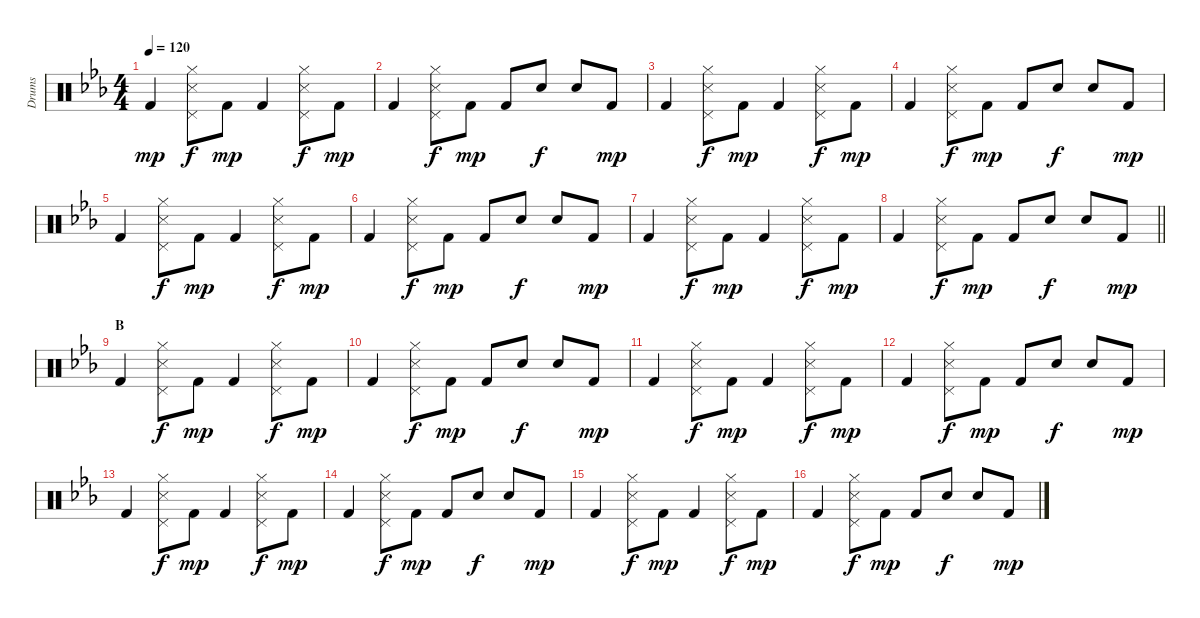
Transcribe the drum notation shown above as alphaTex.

\track ("Drums" "Drums") {instrument percussion}
\staff {score}
\articulation defaults
\ts (4 4)
\tempo 120
\clef neutral
\ks eb "Kick (hit) 2".4{dy mp}
("Hi-Hat (closed)" "Metronome (hit)" "Pedal Hi-Hat (hit)").8{dy f} "Kick (hit) 2".8{dy mp} "Kick (hit) 2".4 ("Hi-Hat (closed)" "Metronome (hit)" "Pedal Hi-Hat (hit)").8{dy f} "Kick (hit) 2".8{dy mp} |
"Kick (hit) 2".4 ("Hi-Hat (closed)" "Metronome (hit)" "Pedal Hi-Hat (hit)").8{dy f} "Kick (hit) 2".8{dy mp} "Kick (hit) 2".8 "Electric Snare (hit)".8{dy f} "Electric Snare (hit)".8 "Kick (hit) 2".8{dy mp} |
"Kick (hit) 2".4 ("Hi-Hat (closed)" "Metronome (hit)" "Pedal Hi-Hat (hit)").8{dy f} "Kick (hit) 2".8{dy mp} "Kick (hit) 2".4 ("Hi-Hat (closed)" "Metronome (hit)" "Pedal Hi-Hat (hit)").8{dy f} "Kick (hit) 2".8{dy mp} |
"Kick (hit) 2".4 ("Hi-Hat (closed)" "Metronome (hit)" "Pedal Hi-Hat (hit)").8{dy f} "Kick (hit) 2".8{dy mp} "Kick (hit) 2".8 "Electric Snare (hit)".8{dy f} "Electric Snare (hit)".8 "Kick (hit) 2".8{dy mp} |
"Kick (hit) 2".4 ("Hi-Hat (closed)" "Metronome (hit)" "Pedal Hi-Hat (hit)").8{dy f} "Kick (hit) 2".8{dy mp} "Kick (hit) 2".4 ("Hi-Hat (closed)" "Metronome (hit)" "Pedal Hi-Hat (hit)").8{dy f} "Kick (hit) 2".8{dy mp} |
"Kick (hit) 2".4 ("Hi-Hat (closed)" "Metronome (hit)" "Pedal Hi-Hat (hit)").8{dy f} "Kick (hit) 2".8{dy mp} "Kick (hit) 2".8 "Electric Snare (hit)".8{dy f} "Electric Snare (hit)".8 "Kick (hit) 2".8{dy mp} |
"Kick (hit) 2".4 ("Hi-Hat (closed)" "Metronome (hit)" "Pedal Hi-Hat (hit)").8{dy f} "Kick (hit) 2".8{dy mp} "Kick (hit) 2".4 ("Hi-Hat (closed)" "Metronome (hit)" "Pedal Hi-Hat (hit)").8{dy f} "Kick (hit) 2".8{dy mp} |
\barLineRight lightlight "Kick (hit) 2".4
("Hi-Hat (closed)" "Metronome (hit)" "Pedal Hi-Hat (hit)").8{dy f} "Kick (hit) 2".8{dy mp} "Kick (hit) 2".8 "Electric Snare (hit)".8{dy f} "Electric Snare (hit)".8 "Kick (hit) 2".8{dy mp} |
\section ("" "B")
"Kick (hit) 2".4 ("Hi-Hat (closed)" "Metronome (hit)" "Pedal Hi-Hat (hit)").8{dy f} "Kick (hit) 2".8{dy mp} "Kick (hit) 2".4 ("Hi-Hat (closed)" "Metronome (hit)" "Pedal Hi-Hat (hit)").8{dy f} "Kick (hit) 2".8{dy mp} |
"Kick (hit) 2".4 ("Hi-Hat (closed)" "Metronome (hit)" "Pedal Hi-Hat (hit)").8{dy f} "Kick (hit) 2".8{dy mp} "Kick (hit) 2".8 "Electric Snare (hit)".8{dy f} "Electric Snare (hit)".8 "Kick (hit) 2".8{dy mp} |
"Kick (hit) 2".4 ("Hi-Hat (closed)" "Metronome (hit)" "Pedal Hi-Hat (hit)").8{dy f} "Kick (hit) 2".8{dy mp} "Kick (hit) 2".4 ("Hi-Hat (closed)" "Metronome (hit)" "Pedal Hi-Hat (hit)").8{dy f} "Kick (hit) 2".8{dy mp} |
"Kick (hit) 2".4 ("Hi-Hat (closed)" "Metronome (hit)" "Pedal Hi-Hat (hit)").8{dy f} "Kick (hit) 2".8{dy mp} "Kick (hit) 2".8 "Electric Snare (hit)".8{dy f} "Electric Snare (hit)".8 "Kick (hit) 2".8{dy mp} |
"Kick (hit) 2".4 ("Hi-Hat (closed)" "Metronome (hit)" "Pedal Hi-Hat (hit)").8{dy f} "Kick (hit) 2".8{dy mp} "Kick (hit) 2".4 ("Hi-Hat (closed)" "Metronome (hit)" "Pedal Hi-Hat (hit)").8{dy f} "Kick (hit) 2".8{dy mp} |
"Kick (hit) 2".4 ("Hi-Hat (closed)" "Metronome (hit)" "Pedal Hi-Hat (hit)").8{dy f} "Kick (hit) 2".8{dy mp} "Kick (hit) 2".8 "Electric Snare (hit)".8{dy f} "Electric Snare (hit)".8 "Kick (hit) 2".8{dy mp} |
"Kick (hit) 2".4 ("Hi-Hat (closed)" "Metronome (hit)" "Pedal Hi-Hat (hit)").8{dy f} "Kick (hit) 2".8{dy mp} "Kick (hit) 2".4 ("Hi-Hat (closed)" "Metronome (hit)" "Pedal Hi-Hat (hit)").8{dy f} "Kick (hit) 2".8{dy mp} |
"Kick (hit) 2".4 ("Hi-Hat (closed)" "Metronome (hit)" "Pedal Hi-Hat (hit)").8{dy f} "Kick (hit) 2".8{dy mp} "Kick (hit) 2".8 "Electric Snare (hit)".8{dy f} "Electric Snare (hit)".8 "Kick (hit) 2".8{dy mp}
